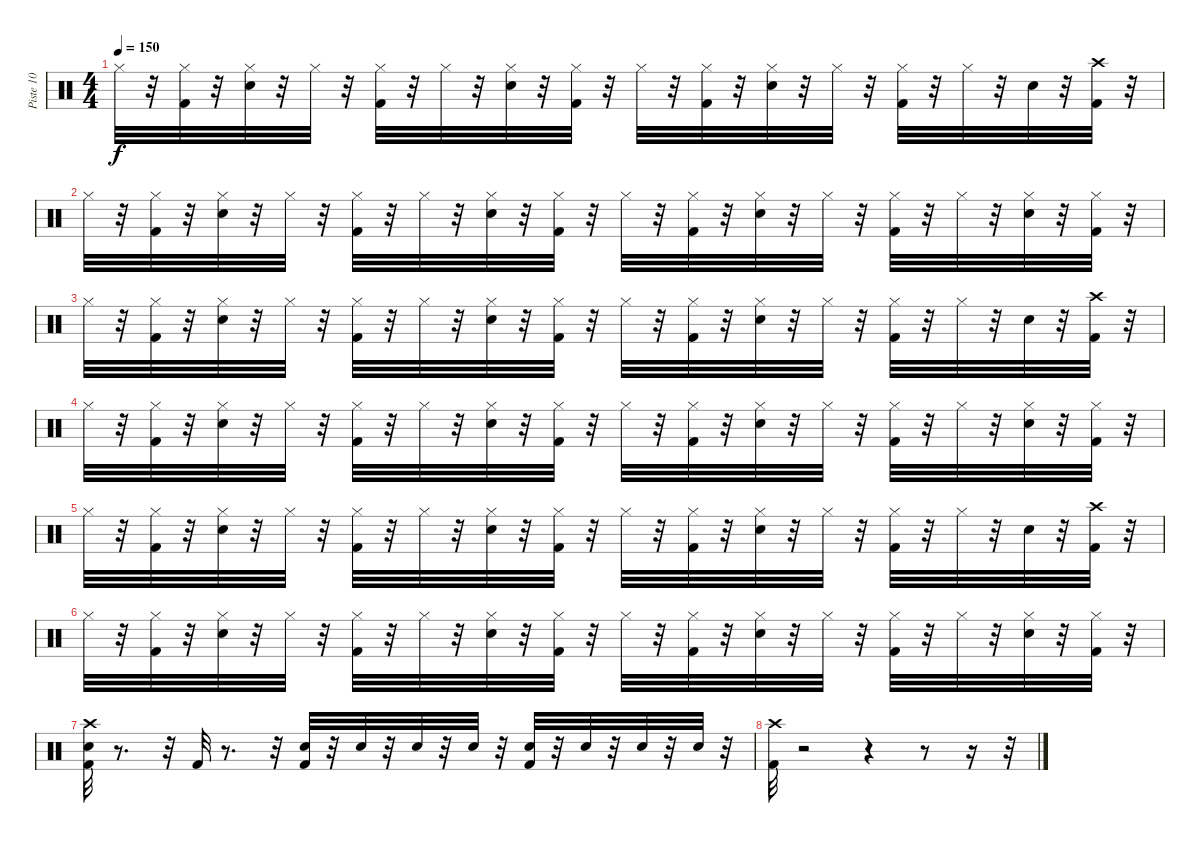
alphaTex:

\track ("Piste 10" "Piste 10") {instrument percussion}
\staff {score}
\articulation defaults
\ts (4 4)
\tempo 150
\clef neutral
\ks c "Hi-Hat (closed)".32{dy f}
r.32 ("Kick (hit) 2" "Hi-Hat (closed)").32 r.32 ("Snare (hit) 2" "Hi-Hat (closed)").32 r.32 "Hi-Hat (closed)".32 r.32 ("Kick (hit) 2" "Hi-Hat (closed)").32 r.32 "Hi-Hat (closed)".32 r.32 ("Hi-Hat (closed)" "Snare (hit) 2").32 r.32 ("Kick (hit) 2" "Hi-Hat (closed)").32 r.32 "Hi-Hat (closed)".32 r.32 ("Kick (hit) 2" "Hi-Hat (closed)").32 r.32 ("Snare (hit) 2" "Hi-Hat (closed)").32 r.32 "Hi-Hat (closed)".32 r.32 ("Kick (hit) 2" "Hi-Hat (closed)").32 r.32 "Hi-Hat (closed)".32 r.32 "Snare (hit) 2".32 r.32 ("Kick (hit) 2" "Crash high (hit)").32 r.32 |
"Hi-Hat (closed)".32 r.32 ("Kick (hit) 2" "Hi-Hat (closed)").32 r.32 ("Snare (hit) 2" "Hi-Hat (closed)").32 r.32 "Hi-Hat (closed)".32 r.32 ("Kick (hit) 2" "Hi-Hat (closed)").32 r.32 "Hi-Hat (closed)".32 r.32 ("Hi-Hat (closed)" "Snare (hit) 2").32 r.32 ("Kick (hit) 2" "Hi-Hat (closed)").32 r.32 "Hi-Hat (closed)".32 r.32 ("Kick (hit) 2" "Hi-Hat (closed)").32 r.32 ("Snare (hit) 2" "Hi-Hat (closed)").32 r.32 "Hi-Hat (closed)".32 r.32 ("Kick (hit) 2" "Hi-Hat (closed)").32 r.32 "Hi-Hat (closed)".32 r.32 ("Snare (hit) 2" "Hi-Hat (closed)").32 r.32 ("Kick (hit) 2" "Hi-Hat (closed)").32 r.32 |
"Hi-Hat (closed)".32 r.32 ("Kick (hit) 2" "Hi-Hat (closed)").32 r.32 ("Snare (hit) 2" "Hi-Hat (closed)").32 r.32 "Hi-Hat (closed)".32 r.32 ("Kick (hit) 2" "Hi-Hat (closed)").32 r.32 "Hi-Hat (closed)".32 r.32 ("Hi-Hat (closed)" "Snare (hit) 2").32 r.32 ("Kick (hit) 2" "Hi-Hat (closed)").32 r.32 "Hi-Hat (closed)".32 r.32 ("Kick (hit) 2" "Hi-Hat (closed)").32 r.32 ("Snare (hit) 2" "Hi-Hat (closed)").32 r.32 "Hi-Hat (closed)".32 r.32 ("Kick (hit) 2" "Hi-Hat (closed)").32 r.32 "Hi-Hat (closed)".32 r.32 "Snare (hit) 2".32 r.32 ("Kick (hit) 2" "Crash high (hit)").32 r.32 |
"Hi-Hat (closed)".32 r.32 ("Kick (hit) 2" "Hi-Hat (closed)").32 r.32 ("Snare (hit) 2" "Hi-Hat (closed)").32 r.32 "Hi-Hat (closed)".32 r.32 ("Kick (hit) 2" "Hi-Hat (closed)").32 r.32 "Hi-Hat (closed)".32 r.32 ("Hi-Hat (closed)" "Snare (hit) 2").32 r.32 ("Kick (hit) 2" "Hi-Hat (closed)").32 r.32 "Hi-Hat (closed)".32 r.32 ("Kick (hit) 2" "Hi-Hat (closed)").32 r.32 ("Snare (hit) 2" "Hi-Hat (closed)").32 r.32 "Hi-Hat (closed)".32 r.32 ("Kick (hit) 2" "Hi-Hat (closed)").32 r.32 "Hi-Hat (closed)".32 r.32 ("Snare (hit) 2" "Hi-Hat (closed)").32 r.32 ("Kick (hit) 2" "Hi-Hat (closed)").32 r.32 |
"Hi-Hat (closed)".32 r.32 ("Kick (hit) 2" "Hi-Hat (closed)").32 r.32 ("Snare (hit) 2" "Hi-Hat (closed)").32 r.32 "Hi-Hat (closed)".32 r.32 ("Kick (hit) 2" "Hi-Hat (closed)").32 r.32 "Hi-Hat (closed)".32 r.32 ("Hi-Hat (closed)" "Snare (hit) 2").32 r.32 ("Kick (hit) 2" "Hi-Hat (closed)").32 r.32 "Hi-Hat (closed)".32 r.32 ("Kick (hit) 2" "Hi-Hat (closed)").32 r.32 ("Snare (hit) 2" "Hi-Hat (closed)").32 r.32 "Hi-Hat (closed)".32 r.32 ("Kick (hit) 2" "Hi-Hat (closed)").32 r.32 "Hi-Hat (closed)".32 r.32 "Snare (hit) 2".32 r.32 ("Kick (hit) 2" "Crash high (hit)").32 r.32 |
"Hi-Hat (closed)".32 r.32 ("Kick (hit) 2" "Hi-Hat (closed)").32 r.32 ("Snare (hit) 2" "Hi-Hat (closed)").32 r.32 "Hi-Hat (closed)".32 r.32 ("Kick (hit) 2" "Hi-Hat (closed)").32 r.32 "Hi-Hat (closed)".32 r.32 ("Hi-Hat (closed)" "Snare (hit) 2").32 r.32 ("Kick (hit) 2" "Hi-Hat (closed)").32 r.32 "Hi-Hat (closed)".32 r.32 ("Kick (hit) 2" "Hi-Hat (closed)").32 r.32 ("Snare (hit) 2" "Hi-Hat (closed)").32 r.32 "Hi-Hat (closed)".32 r.32 ("Kick (hit) 2" "Hi-Hat (closed)").32 r.32 "Hi-Hat (closed)".32 r.32 ("Snare (hit) 2" "Hi-Hat (closed)").32 r.32 ("Kick (hit) 2" "Hi-Hat (closed)").32 r.32 |
("Snare (hit) 2" "Crash high (hit)" "Kick (hit) 2").32 r.8{d} r.32 "Kick (hit) 2".32 r.8{d} r.32 ("Snare (hit) 2" "Kick (hit) 2").32 r.32 "Snare (hit) 2".32 r.32 "Snare (hit) 2".32 r.32 "Snare (hit) 2".32 r.32 ("Snare (hit) 2" "Kick (hit) 2").32 r.32 "Snare (hit) 2".32 r.32 "Snare (hit) 2".32 r.32 "Snare (hit) 2".32 r.32 |
("Crash high (hit)" "Kick (hit) 2").32 r.2 r.4 r.8 r.16 r.32
